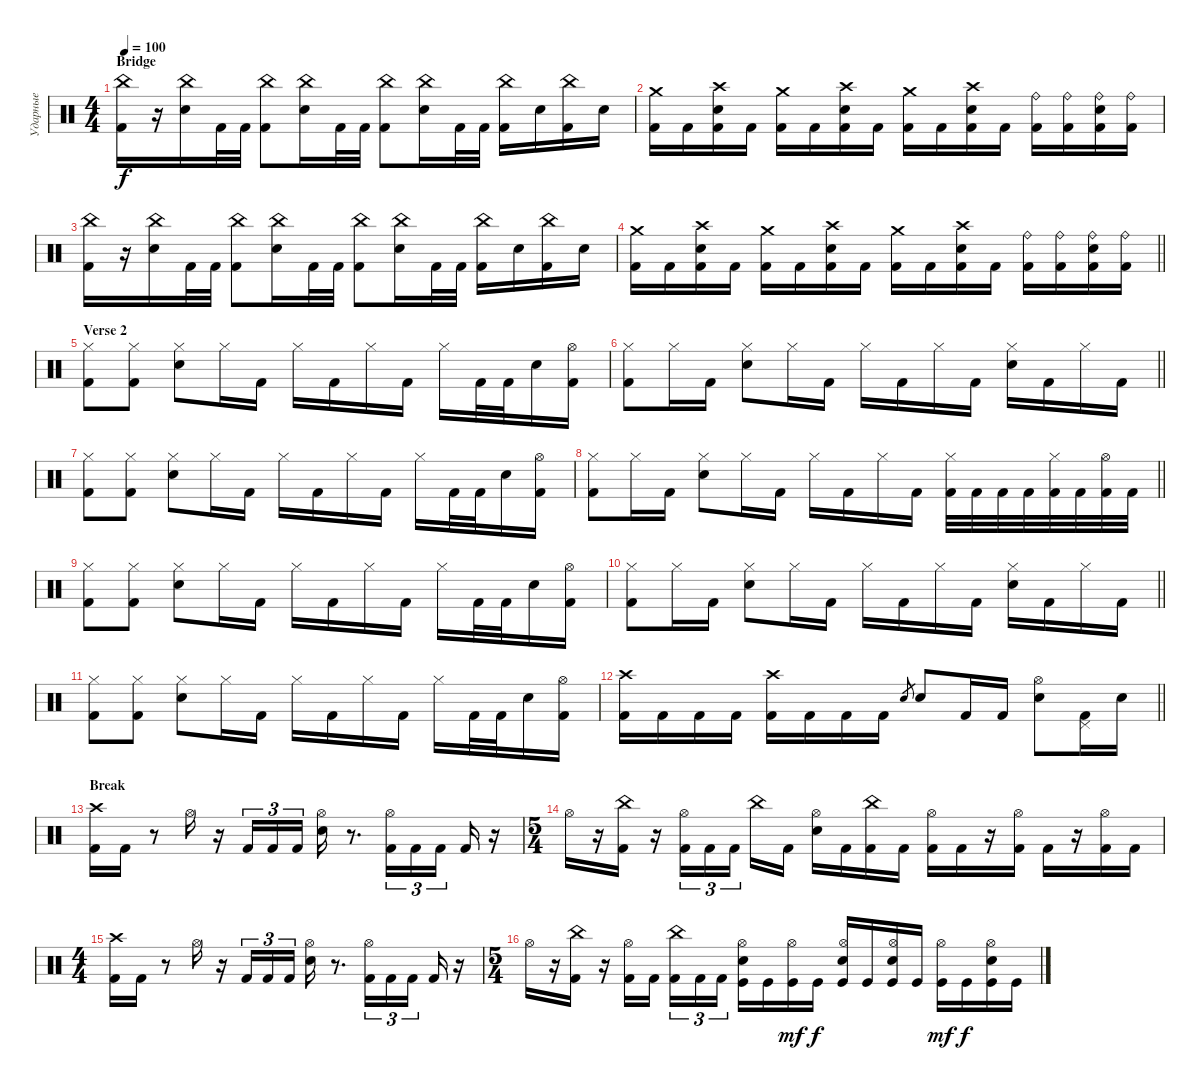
\track ("Ударные" "Ударные") {instrument percussion}
\staff {score}
\articulation defaults
\ts (4 4)
\section ("" "Bridge")
\tempo 100
\clef neutral
\ks c
("China (hit)" "Kick (hit) 2").16{dy f} r.16 ("China (hit)" "Electric Snare (hit)").16 "Kick (hit) 2".32 "Kick (hit) 2".32 ("China (hit)" "Kick (hit) 2").8 ("China (hit)" "Electric Snare (hit)").16 "Kick (hit) 2".32 "Kick (hit) 2".32 ("China (hit)" "Kick (hit) 2").8 ("China (hit)" "Electric Snare (hit)").16 "Kick (hit) 2".32 "Kick (hit) 2".32 ("China (hit)" "Kick (hit) 2").16 "Electric Snare (hit)".16 ("China (hit)" "Kick (hit) 2").16 "Electric Snare (hit)".16 |
("Crash medium (hit)" "Kick (hit) 2").16 "Kick (hit) 2".16 ("Crash high (hit)" "Electric Snare (hit)" "Kick (hit) 2").16 "Kick (hit) 2".16 ("Crash medium (hit)" "Kick (hit) 2").16 "Kick (hit) 2".16 ("Crash high (hit)" "Electric Snare (hit)" "Kick (hit) 2").16 "Kick (hit) 2".16 ("Crash medium (hit)" "Kick (hit) 2").16 "Kick (hit) 2".16 ("Crash high (hit)" "Electric Snare (hit)" "Kick (hit) 2").16 "Kick (hit) 2".16 ("Ride (bell)" "Kick (hit) 2").16 ("Ride (bell)" "Kick (hit) 2").16 ("Ride (bell)" "Electric Snare (hit)" "Kick (hit) 2").16 ("Ride (bell)" "Kick (hit) 2").16 |
("China (hit)" "Kick (hit) 2").16 r.16 ("China (hit)" "Electric Snare (hit)").16 "Kick (hit) 2".32 "Kick (hit) 2".32 ("China (hit)" "Kick (hit) 2").8 ("China (hit)" "Electric Snare (hit)").16 "Kick (hit) 2".32 "Kick (hit) 2".32 ("China (hit)" "Kick (hit) 2").8 ("China (hit)" "Electric Snare (hit)").16 "Kick (hit) 2".32 "Kick (hit) 2".32 ("China (hit)" "Kick (hit) 2").16 "Electric Snare (hit)".16 ("China (hit)" "Kick (hit) 2").16 "Electric Snare (hit)".16 |
\barLineRight lightlight
("Crash medium (hit)" "Kick (hit) 2").16 "Kick (hit) 2".16 ("Crash high (hit)" "Electric Snare (hit)" "Kick (hit) 2").16 "Kick (hit) 2".16 ("Crash medium (hit)" "Kick (hit) 2").16 "Kick (hit) 2".16 ("Crash high (hit)" "Electric Snare (hit)" "Kick (hit) 2").16 "Kick (hit) 2".16 ("Crash medium (hit)" "Kick (hit) 2").16 "Kick (hit) 2".16 ("Crash high (hit)" "Electric Snare (hit)" "Kick (hit) 2").16 "Kick (hit) 2".16 ("Ride (bell)" "Kick (hit) 2").16 ("Ride (bell)" "Kick (hit) 2").16 ("Ride (bell)" "Electric Snare (hit)" "Kick (hit) 2").16 ("Ride (bell)" "Kick (hit) 2").16 |
\section ("" "Verse 2")
("Hi-Hat (closed)" "Kick (hit) 2").8 ("Hi-Hat (closed)" "Kick (hit) 2").8 ("Hi-Hat (closed)" "Electric Snare (hit)").8 "Hi-Hat (closed)".16 "Kick (hit) 2".16 "Hi-Hat (closed)".16 "Kick (hit) 2".16 "Hi-Hat (closed)".16 "Kick (hit) 2".16 "Hi-Hat (closed)".16 "Kick (hit) 2".32 "Kick (hit) 2".32 "Electric Snare (hit)".16 ("Hi-Hat (open)" "Kick (hit) 2").16 |
\barLineRight lightlight
("Hi-Hat (closed)" "Kick (hit) 2").8 "Hi-Hat (closed)".16 "Kick (hit) 2".16 ("Hi-Hat (closed)" "Electric Snare (hit)").8 "Hi-Hat (closed)".16 "Kick (hit) 2".16 "Hi-Hat (closed)".16 "Kick (hit) 2".16 "Hi-Hat (closed)".16 "Kick (hit) 2".16 ("Hi-Hat (closed)" "Electric Snare (hit)").16 "Kick (hit) 2".16 "Hi-Hat (closed)".16 "Kick (hit) 2".16 |
("Hi-Hat (closed)" "Kick (hit) 2").8 ("Hi-Hat (closed)" "Kick (hit) 2").8 ("Hi-Hat (closed)" "Electric Snare (hit)").8 "Hi-Hat (closed)".16 "Kick (hit) 2".16 "Hi-Hat (closed)".16 "Kick (hit) 2".16 "Hi-Hat (closed)".16 "Kick (hit) 2".16 "Hi-Hat (closed)".16 "Kick (hit) 2".32 "Kick (hit) 2".32 "Electric Snare (hit)".16 ("Hi-Hat (open)" "Kick (hit) 2").16 |
\barLineRight lightlight
("Hi-Hat (closed)" "Kick (hit) 2").8 "Hi-Hat (closed)".16 "Kick (hit) 2".16 ("Hi-Hat (closed)" "Electric Snare (hit)").8 "Hi-Hat (closed)".16 "Kick (hit) 2".16 "Hi-Hat (closed)".16 "Kick (hit) 2".16 "Hi-Hat (closed)".16 "Kick (hit) 2".16 ("Hi-Hat (closed)" "Kick (hit) 2").32 "Kick (hit) 2".32 "Kick (hit) 2".32 "Kick (hit) 2".32 ("Hi-Hat (closed)" "Kick (hit) 2").32 "Kick (hit) 2".32 ("Hi-Hat (open)" "Kick (hit) 2").32 "Kick (hit) 2".32 |
("Hi-Hat (closed)" "Kick (hit) 2").8 ("Hi-Hat (closed)" "Kick (hit) 2").8 ("Hi-Hat (closed)" "Electric Snare (hit)").8 "Hi-Hat (closed)".16 "Kick (hit) 2".16 "Hi-Hat (closed)".16 "Kick (hit) 2".16 "Hi-Hat (closed)".16 "Kick (hit) 2".16 "Hi-Hat (closed)".16 "Kick (hit) 2".32 "Kick (hit) 2".32 "Electric Snare (hit)".16 ("Hi-Hat (open)" "Kick (hit) 2").16 |
\barLineRight lightlight
("Hi-Hat (closed)" "Kick (hit) 2").8 "Hi-Hat (closed)".16 "Kick (hit) 2".16 ("Hi-Hat (closed)" "Electric Snare (hit)").8 "Hi-Hat (closed)".16 "Kick (hit) 2".16 "Hi-Hat (closed)".16 "Kick (hit) 2".16 "Hi-Hat (closed)".16 "Kick (hit) 2".16 ("Hi-Hat (closed)" "Electric Snare (hit)").16 "Kick (hit) 2".16 "Hi-Hat (closed)".16 "Kick (hit) 2".16 |
("Hi-Hat (closed)" "Kick (hit) 2").8 ("Hi-Hat (closed)" "Kick (hit) 2").8 ("Hi-Hat (closed)" "Electric Snare (hit)").8 "Hi-Hat (closed)".16 "Kick (hit) 2".16 "Hi-Hat (closed)".16 "Kick (hit) 2".16 "Hi-Hat (closed)".16 "Kick (hit) 2".16 "Hi-Hat (closed)".16 "Kick (hit) 2".32 "Kick (hit) 2".32 "Electric Snare (hit)".16 ("Hi-Hat (open)" "Kick (hit) 2").16 |
\barLineRight lightlight
("Crash high (hit)" "Kick (hit) 2").16 "Kick (hit) 2".16 "Kick (hit) 2".16 "Kick (hit) 2".16 ("Crash high (hit)" "Kick (hit) 2").16 "Kick (hit) 2".16 "Kick (hit) 2".16 "Kick (hit) 2".16 "Electric Snare (hit)".8{gr} "Electric Snare (hit)".8 "Kick (hit) 2".16 "Kick (hit) 2".16 ("Hi-Hat (open)" "Electric Snare (hit)").8 ("Pedal Hi-Hat (hit)" "Kick (hit) 2").16 "Electric Snare (hit)".16 |
\section ("" "Break")
("Crash high (hit)" "Kick (hit) 2").16 "Kick (hit) 2".16 r.8 "Hi-Hat (open)".16 r.16 "Kick (hit) 2".16{tu (3 2)} "Kick (hit) 2".16{tu (3 2)} "Kick (hit) 2".16{tu (3 2)} ("Hi-Hat (open)" "Electric Snare (hit)").16 r.8{d} ("Hi-Hat (open)" "Kick (hit) 2").16{tu (3 2)} "Kick (hit) 2".16{tu (3 2)} "Kick (hit) 2".16{tu (3 2) beam splitsecondary} "Kick (hit) 2".16 r.16 |
\ts (5 4)
"Hi-Hat (open)".16 r.16 ("China (hit)" "Kick (hit) 2").16 r.16 ("Hi-Hat (open)" "Kick (hit) 2").16{tu (3 2)} "Kick (hit) 2".16{tu (3 2)} "Kick (hit) 2".16{tu (3 2) beam splitsecondary} "China (hit)".16 "Kick (hit) 2".16 ("Hi-Hat (open)" "Electric Snare (hit)").16 "Kick (hit) 2".16 ("China (hit)" "Kick (hit) 2").16 "Kick (hit) 2".16 ("Hi-Hat (open)" "Kick (hit) 2").16 "Kick (hit) 2".16 r.16 ("Hi-Hat (open)" "Kick (hit) 2").16 "Kick (hit) 2".16 r.16 ("Hi-Hat (open)" "Kick (hit) 2").16 "Kick (hit) 2".16 |
\ts (4 4)
("Crash high (hit)" "Kick (hit) 2").16 "Kick (hit) 2".16 r.8 "Hi-Hat (open)".16 r.16 "Kick (hit) 2".16{tu (3 2)} "Kick (hit) 2".16{tu (3 2)} "Kick (hit) 2".16{tu (3 2)} ("Hi-Hat (open)" "Electric Snare (hit)").16 r.8{d} ("Hi-Hat (open)" "Kick (hit) 2").16{tu (3 2)} "Kick (hit) 2".16{tu (3 2)} "Kick (hit) 2".16{tu (3 2) beam splitsecondary} "Kick (hit) 2".16 r.16 |
\ts (5 4)
"Hi-Hat (open)".16 r.16 ("China (hit)" "Kick (hit) 2").16 r.16 ("Hi-Hat (open)" "Kick (hit) 2").16 "Kick (hit) 2".16{beam splitsecondary} ("China (hit)" "Kick (hit) 2").16{tu (3 2)} "Kick (hit) 2".16{tu (3 2)} "Kick (hit) 2".16{tu (3 2)} ("Hi-Hat (open)" "Electric Snare (hit)" "Kick (hit)").16 "Kick (hit)".16 ("Hi-Hat (open)" "Kick (hit)").16{dy mf} "Kick (hit)".16{dy f} ("Hi-Hat (open)" "Electric Snare (hit)" "Kick (hit)").16 "Kick (hit)".16 ("Hi-Hat (open)" "Electric Snare (hit)" "Kick (hit)").16 "Kick (hit)".16 ("Hi-Hat (open)" "Kick (hit)").16{dy mf} "Kick (hit)".16{dy f} ("Hi-Hat (open)" "Electric Snare (hit)" "Kick (hit)").16 "Kick (hit)".16
